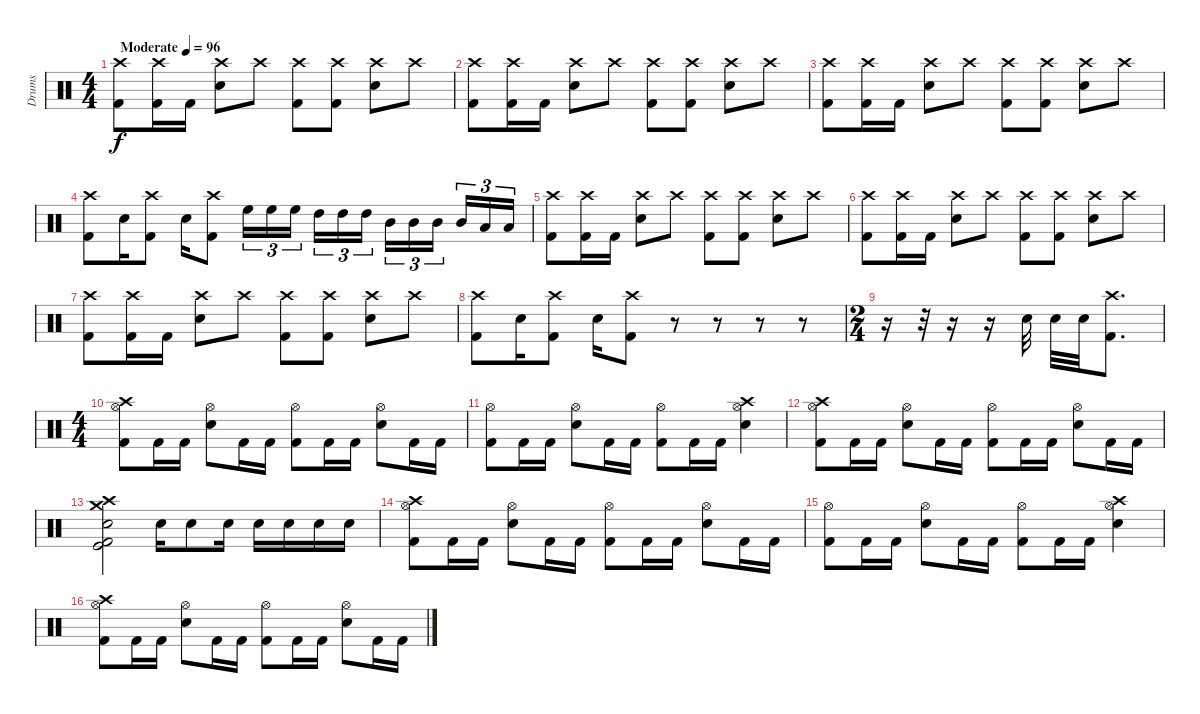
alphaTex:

\track ("Drums" "Drums") {instrument percussion}
\staff {score}
\articulation defaults
\ts (4 4)
\tempo (96 "Moderate")
\clef neutral
\ks c
("Crash high (hit)" "Kick (hit) 2").8{dy f} ("Crash high (hit)" "Kick (hit) 2").16 "Kick (hit) 2".16 ("Crash high (hit)" "Snare (hit) 2").8 "Crash high (hit)".8 ("Crash high (hit)" "Kick (hit) 2").8 ("Crash high (hit)" "Kick (hit) 2").8 ("Crash high (hit)" "Snare (hit) 2").8 "Crash high (hit)".8 |
("Crash high (hit)" "Kick (hit) 2").8 ("Crash high (hit)" "Kick (hit) 2").16 "Kick (hit) 2".16 ("Crash high (hit)" "Snare (hit) 2").8 "Crash high (hit)".8 ("Crash high (hit)" "Kick (hit) 2").8 ("Crash high (hit)" "Kick (hit) 2").8 ("Crash high (hit)" "Snare (hit) 2").8 "Crash high (hit)".8 |
("Crash high (hit)" "Kick (hit) 2").8 ("Crash high (hit)" "Kick (hit) 2").16 "Kick (hit) 2".16 ("Crash high (hit)" "Snare (hit) 2").8 "Crash high (hit)".8 ("Crash high (hit)" "Kick (hit) 2").8 ("Crash high (hit)" "Kick (hit) 2").8 ("Crash high (hit)" "Snare (hit) 2").8 "Crash high (hit)".8 |
("Crash high (hit)" "Kick (hit) 2").8 "Snare (hit) 2".16 ("Crash high (hit)" "Kick (hit) 2").8 "Snare (hit) 2".16 ("Crash high (hit)" "Kick (hit) 2").8 "High Floor Tom (hit)".16{tu (3 2)} "High Floor Tom (hit)".16{tu (3 2)} "High Floor Tom (hit)".16{tu (3 2) beam splitsecondary} "High Tom (hit)".16{tu (3 2)} "High Tom (hit)".16{tu (3 2)} "High Tom (hit)".16{tu (3 2)} "Mid Tom (hit)".16{tu (3 2)} "Mid Tom (hit)".16{tu (3 2)} "Mid Tom (hit)".16{tu (3 2) beam splitsecondary} "Mid Tom (hit)".16{tu (3 2)} "Low Tom (hit)".16{tu (3 2)} "Low Tom (hit)".16{tu (3 2)} |
("Crash high (hit)" "Kick (hit) 2").8 ("Crash high (hit)" "Kick (hit) 2").16 "Kick (hit) 2".16 ("Crash high (hit)" "Snare (hit) 2").8 "Crash high (hit)".8 ("Crash high (hit)" "Kick (hit) 2").8 ("Crash high (hit)" "Kick (hit) 2").8 ("Crash high (hit)" "Snare (hit) 2").8 "Crash high (hit)".8 |
("Crash high (hit)" "Kick (hit) 2").8 ("Crash high (hit)" "Kick (hit) 2").16 "Kick (hit) 2".16 ("Crash high (hit)" "Snare (hit) 2").8 "Crash high (hit)".8 ("Crash high (hit)" "Kick (hit) 2").8 ("Crash high (hit)" "Kick (hit) 2").8 ("Crash high (hit)" "Snare (hit) 2").8 "Crash high (hit)".8 |
("Crash high (hit)" "Kick (hit) 2").8 ("Crash high (hit)" "Kick (hit) 2").16 "Kick (hit) 2".16 ("Crash high (hit)" "Snare (hit) 2").8 "Crash high (hit)".8 ("Crash high (hit)" "Kick (hit) 2").8 ("Crash high (hit)" "Kick (hit) 2").8 ("Crash high (hit)" "Snare (hit) 2").8 "Crash high (hit)".8 |
("Crash high (hit)" "Kick (hit) 2").8 "Snare (hit) 2".16 ("Crash high (hit)" "Kick (hit) 2").8 "Snare (hit) 2".16 ("Crash high (hit)" "Kick (hit) 2").8 r.8 r.8 r.8 r.8 |
\ts (2 4)
r.16 r.32 r.16 r.16 "Snare (hit) 2".32 "Snare (hit) 2".32 "Snare (hit) 2".32 ("Crash high (hit)" "Kick (hit) 2").8{d} |
\ts (4 4)
("Crash high (hit)" "Hi-Hat (open)" "Kick (hit) 2").8 "Kick (hit) 2".16 "Kick (hit) 2".16 ("Hi-Hat (open)" "Snare (hit) 2").8 "Kick (hit) 2".16 "Kick (hit) 2".16 ("Hi-Hat (open)" "Kick (hit) 2").8 "Kick (hit) 2".16 "Kick (hit) 2".16 ("Hi-Hat (open)" "Snare (hit) 2").8 "Kick (hit) 2".16 "Kick (hit) 2".16 |
("Hi-Hat (open)" "Kick (hit) 2").8 "Kick (hit) 2".16 "Kick (hit) 2".16 ("Hi-Hat (open)" "Snare (hit) 2").8 "Kick (hit) 2".16 "Kick (hit) 2".16 ("Hi-Hat (open)" "Kick (hit) 2").8 "Kick (hit) 2".16 "Kick (hit) 2".16 ("Crash high (hit)" "Hi-Hat (open)" "Snare (hit) 2").4 |
("Crash high (hit)" "Hi-Hat (open)" "Kick (hit) 2").8 "Kick (hit) 2".16 "Kick (hit) 2".16 ("Hi-Hat (open)" "Snare (hit) 2").8 "Kick (hit) 2".16 "Kick (hit) 2".16 ("Hi-Hat (open)" "Kick (hit) 2").8 "Kick (hit) 2".16 "Kick (hit) 2".16 ("Hi-Hat (open)" "Snare (hit) 2").8 "Kick (hit) 2".16 "Kick (hit) 2".16 |
("Snare (hit) 2" "Crash high (hit)" "Crash medium (hit)" "Kick (hit)" "Kick (hit) 2").2 "Snare (hit) 2".16 "Snare (hit) 2".8 "Snare (hit) 2".16 "Snare (hit) 2".16 "Snare (hit) 2".16 "Snare (hit) 2".16 "Snare (hit) 2".16 |
("Crash high (hit)" "Hi-Hat (open)" "Kick (hit) 2").8 "Kick (hit) 2".16 "Kick (hit) 2".16 ("Hi-Hat (open)" "Snare (hit) 2").8 "Kick (hit) 2".16 "Kick (hit) 2".16 ("Hi-Hat (open)" "Kick (hit) 2").8 "Kick (hit) 2".16 "Kick (hit) 2".16 ("Hi-Hat (open)" "Snare (hit) 2").8 "Kick (hit) 2".16 "Kick (hit) 2".16 |
("Hi-Hat (open)" "Kick (hit) 2").8 "Kick (hit) 2".16 "Kick (hit) 2".16 ("Hi-Hat (open)" "Snare (hit) 2").8 "Kick (hit) 2".16 "Kick (hit) 2".16 ("Hi-Hat (open)" "Kick (hit) 2").8 "Kick (hit) 2".16 "Kick (hit) 2".16 ("Crash high (hit)" "Hi-Hat (open)" "Snare (hit) 2").4 |
("Crash high (hit)" "Hi-Hat (open)" "Kick (hit) 2").8 "Kick (hit) 2".16 "Kick (hit) 2".16 ("Hi-Hat (open)" "Snare (hit) 2").8 "Kick (hit) 2".16 "Kick (hit) 2".16 ("Hi-Hat (open)" "Kick (hit) 2").8 "Kick (hit) 2".16 "Kick (hit) 2".16 ("Hi-Hat (open)" "Snare (hit) 2").8 "Kick (hit) 2".16 "Kick (hit) 2".16
